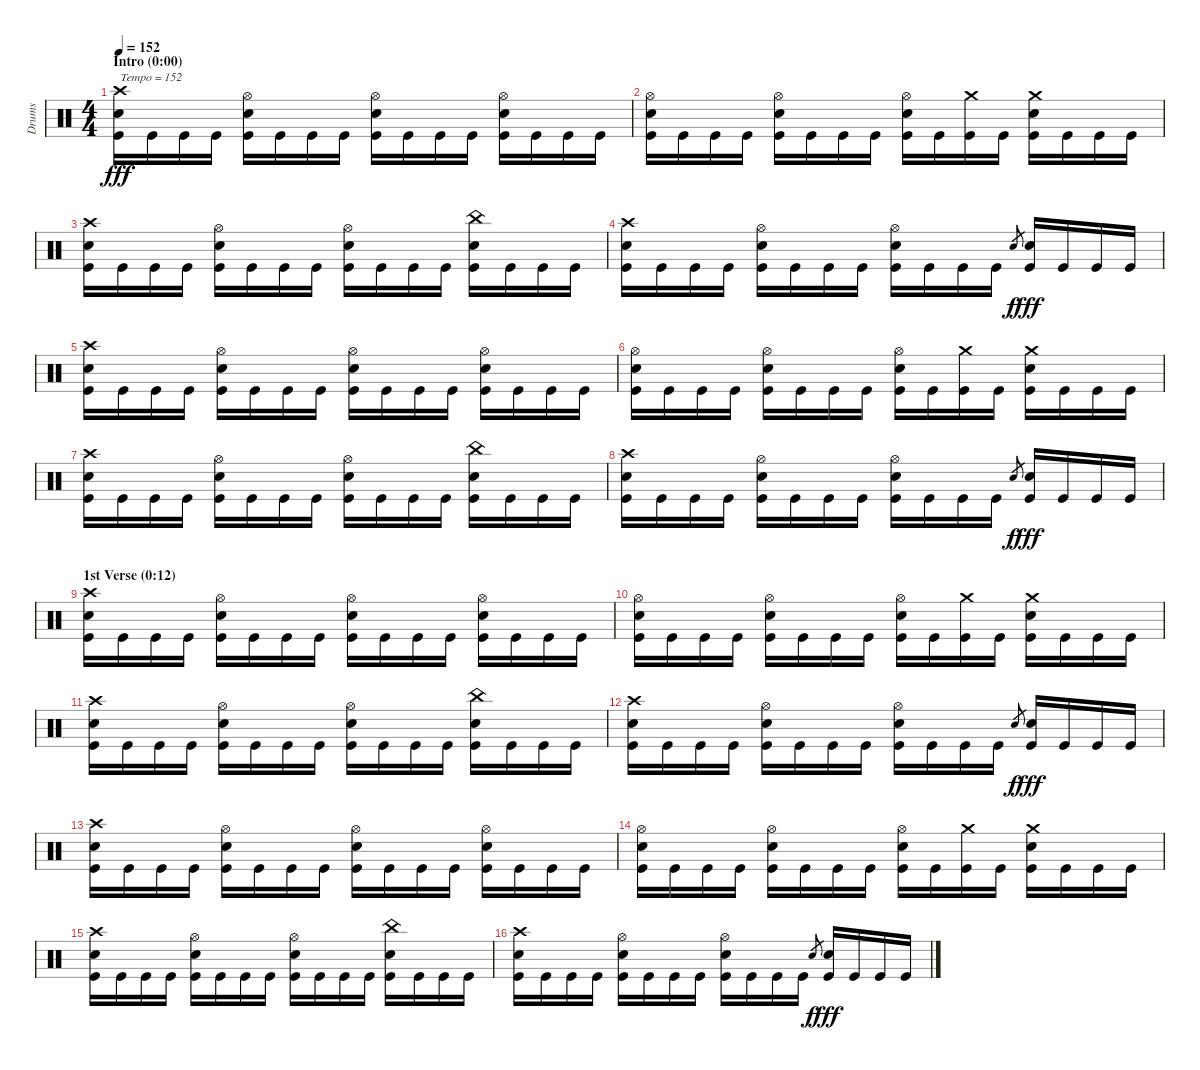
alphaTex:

\track ("Drums" "Drums") {instrument percussion}
\staff {score}
\articulation defaults
\ts (4 4)
\section ("" "Intro (0:00)")
\tempo 152
\clef neutral
\ks c
("Crash high (hit)" "Snare (hit) 2" "Kick (hit)").16{txt "Tempo = 152" dy fff} "Kick (hit)".16 "Kick (hit)".16 "Kick (hit)".16 ("Hi-Hat (open)" "Snare (hit) 2" "Kick (hit)").16 "Kick (hit)".16 "Kick (hit)".16 "Kick (hit)".16 ("Hi-Hat (open)" "Snare (hit) 2" "Kick (hit)").16 "Kick (hit)".16 "Kick (hit)".16 "Kick (hit)".16 ("Hi-Hat (open)" "Snare (hit) 2" "Kick (hit)").16 "Kick (hit)".16 "Kick (hit)".16 "Kick (hit)".16 |
("Hi-Hat (open)" "Snare (hit) 2" "Kick (hit)").16 "Kick (hit)".16 "Kick (hit)".16 "Kick (hit)".16 ("Hi-Hat (open)" "Snare (hit) 2" "Kick (hit)").16 "Kick (hit)".16 "Kick (hit)".16 "Kick (hit)".16 ("Hi-Hat (open)" "Snare (hit) 2" "Kick (hit)").16 "Kick (hit)".16 ("Crash medium (hit)" "Kick (hit)").16 "Kick (hit)".16 ("Crash medium (hit)" "Snare (hit) 2" "Kick (hit)").16 "Kick (hit)".16 "Kick (hit)".16 "Kick (hit)".16 |
("Crash high (hit)" "Snare (hit) 2" "Kick (hit)").16 "Kick (hit)".16 "Kick (hit)".16 "Kick (hit)".16 ("Hi-Hat (open)" "Snare (hit) 2" "Kick (hit)").16 "Kick (hit)".16 "Kick (hit)".16 "Kick (hit)".16 ("Hi-Hat (open)" "Snare (hit) 2" "Kick (hit)").16 "Kick (hit)".16 "Kick (hit)".16 "Kick (hit)".16 ("China (hit)" "Snare (hit) 2" "Kick (hit)").16 "Kick (hit)".16 "Kick (hit)".16 "Kick (hit)".16 |
("Crash high (hit)" "Snare (hit) 2" "Kick (hit)").16 "Kick (hit)".16 "Kick (hit)".16 "Kick (hit)".16 ("Hi-Hat (open)" "Snare (hit) 2" "Kick (hit)").16 "Kick (hit)".16 "Kick (hit)".16 "Kick (hit)".16 ("Hi-Hat (open)" "Snare (hit) 2" "Kick (hit)").16 "Kick (hit)".16 "Kick (hit)".16 "Kick (hit)".16 "Snare (hit) 2".8{gr dy f} ("Snare (hit) 2" "Kick (hit)").16{dy fff} "Kick (hit)".16 "Kick (hit)".16 "Kick (hit)".16 |
("Crash high (hit)" "Snare (hit) 2" "Kick (hit)").16 "Kick (hit)".16 "Kick (hit)".16 "Kick (hit)".16 ("Hi-Hat (open)" "Snare (hit) 2" "Kick (hit)").16 "Kick (hit)".16 "Kick (hit)".16 "Kick (hit)".16 ("Hi-Hat (open)" "Snare (hit) 2" "Kick (hit)").16 "Kick (hit)".16 "Kick (hit)".16 "Kick (hit)".16 ("Hi-Hat (open)" "Snare (hit) 2" "Kick (hit)").16 "Kick (hit)".16 "Kick (hit)".16 "Kick (hit)".16 |
("Hi-Hat (open)" "Snare (hit) 2" "Kick (hit)").16 "Kick (hit)".16 "Kick (hit)".16 "Kick (hit)".16 ("Hi-Hat (open)" "Snare (hit) 2" "Kick (hit)").16 "Kick (hit)".16 "Kick (hit)".16 "Kick (hit)".16 ("Hi-Hat (open)" "Snare (hit) 2" "Kick (hit)").16 "Kick (hit)".16 ("Crash medium (hit)" "Kick (hit)").16 "Kick (hit)".16 ("Crash medium (hit)" "Snare (hit) 2" "Kick (hit)").16 "Kick (hit)".16 "Kick (hit)".16 "Kick (hit)".16 |
("Crash high (hit)" "Snare (hit) 2" "Kick (hit)").16 "Kick (hit)".16 "Kick (hit)".16 "Kick (hit)".16 ("Hi-Hat (open)" "Snare (hit) 2" "Kick (hit)").16 "Kick (hit)".16 "Kick (hit)".16 "Kick (hit)".16 ("Hi-Hat (open)" "Snare (hit) 2" "Kick (hit)").16 "Kick (hit)".16 "Kick (hit)".16 "Kick (hit)".16 ("China (hit)" "Snare (hit) 2" "Kick (hit)").16 "Kick (hit)".16 "Kick (hit)".16 "Kick (hit)".16 |
("Crash high (hit)" "Snare (hit) 2" "Kick (hit)").16 "Kick (hit)".16 "Kick (hit)".16 "Kick (hit)".16 ("Hi-Hat (open)" "Snare (hit) 2" "Kick (hit)").16 "Kick (hit)".16 "Kick (hit)".16 "Kick (hit)".16 ("Hi-Hat (open)" "Snare (hit) 2" "Kick (hit)").16 "Kick (hit)".16 "Kick (hit)".16 "Kick (hit)".16 "Snare (hit) 2".8{gr dy f} ("Snare (hit) 2" "Kick (hit)").16{dy fff} "Kick (hit)".16 "Kick (hit)".16 "Kick (hit)".16 |
\section ("" "1st Verse (0:12)")
("Crash high (hit)" "Snare (hit) 2" "Kick (hit)").16 "Kick (hit)".16 "Kick (hit)".16 "Kick (hit)".16 ("Hi-Hat (open)" "Snare (hit) 2" "Kick (hit)").16 "Kick (hit)".16 "Kick (hit)".16 "Kick (hit)".16 ("Hi-Hat (open)" "Snare (hit) 2" "Kick (hit)").16 "Kick (hit)".16 "Kick (hit)".16 "Kick (hit)".16 ("Hi-Hat (open)" "Snare (hit) 2" "Kick (hit)").16 "Kick (hit)".16 "Kick (hit)".16 "Kick (hit)".16 |
("Hi-Hat (open)" "Snare (hit) 2" "Kick (hit)").16 "Kick (hit)".16 "Kick (hit)".16 "Kick (hit)".16 ("Hi-Hat (open)" "Snare (hit) 2" "Kick (hit)").16 "Kick (hit)".16 "Kick (hit)".16 "Kick (hit)".16 ("Hi-Hat (open)" "Snare (hit) 2" "Kick (hit)").16 "Kick (hit)".16 ("Crash medium (hit)" "Kick (hit)").16 "Kick (hit)".16 ("Crash medium (hit)" "Snare (hit) 2" "Kick (hit)").16 "Kick (hit)".16 "Kick (hit)".16 "Kick (hit)".16 |
("Crash high (hit)" "Snare (hit) 2" "Kick (hit)").16 "Kick (hit)".16 "Kick (hit)".16 "Kick (hit)".16 ("Hi-Hat (open)" "Snare (hit) 2" "Kick (hit)").16 "Kick (hit)".16 "Kick (hit)".16 "Kick (hit)".16 ("Hi-Hat (open)" "Snare (hit) 2" "Kick (hit)").16 "Kick (hit)".16 "Kick (hit)".16 "Kick (hit)".16 ("China (hit)" "Snare (hit) 2" "Kick (hit)").16 "Kick (hit)".16 "Kick (hit)".16 "Kick (hit)".16 |
("Crash high (hit)" "Snare (hit) 2" "Kick (hit)").16 "Kick (hit)".16 "Kick (hit)".16 "Kick (hit)".16 ("Hi-Hat (open)" "Snare (hit) 2" "Kick (hit)").16 "Kick (hit)".16 "Kick (hit)".16 "Kick (hit)".16 ("Hi-Hat (open)" "Snare (hit) 2" "Kick (hit)").16 "Kick (hit)".16 "Kick (hit)".16 "Kick (hit)".16 "Snare (hit) 2".8{gr dy f} ("Snare (hit) 2" "Kick (hit)").16{dy fff} "Kick (hit)".16 "Kick (hit)".16 "Kick (hit)".16 |
("Crash high (hit)" "Snare (hit) 2" "Kick (hit)").16 "Kick (hit)".16 "Kick (hit)".16 "Kick (hit)".16 ("Hi-Hat (open)" "Snare (hit) 2" "Kick (hit)").16 "Kick (hit)".16 "Kick (hit)".16 "Kick (hit)".16 ("Hi-Hat (open)" "Snare (hit) 2" "Kick (hit)").16 "Kick (hit)".16 "Kick (hit)".16 "Kick (hit)".16 ("Hi-Hat (open)" "Snare (hit) 2" "Kick (hit)").16 "Kick (hit)".16 "Kick (hit)".16 "Kick (hit)".16 |
("Hi-Hat (open)" "Snare (hit) 2" "Kick (hit)").16 "Kick (hit)".16 "Kick (hit)".16 "Kick (hit)".16 ("Hi-Hat (open)" "Snare (hit) 2" "Kick (hit)").16 "Kick (hit)".16 "Kick (hit)".16 "Kick (hit)".16 ("Hi-Hat (open)" "Snare (hit) 2" "Kick (hit)").16 "Kick (hit)".16 ("Crash medium (hit)" "Kick (hit)").16 "Kick (hit)".16 ("Crash medium (hit)" "Snare (hit) 2" "Kick (hit)").16 "Kick (hit)".16 "Kick (hit)".16 "Kick (hit)".16 |
("Crash high (hit)" "Snare (hit) 2" "Kick (hit)").16 "Kick (hit)".16 "Kick (hit)".16 "Kick (hit)".16 ("Hi-Hat (open)" "Snare (hit) 2" "Kick (hit)").16 "Kick (hit)".16 "Kick (hit)".16 "Kick (hit)".16 ("Hi-Hat (open)" "Snare (hit) 2" "Kick (hit)").16 "Kick (hit)".16 "Kick (hit)".16 "Kick (hit)".16 ("China (hit)" "Snare (hit) 2" "Kick (hit)").16 "Kick (hit)".16 "Kick (hit)".16 "Kick (hit)".16 |
("Crash high (hit)" "Snare (hit) 2" "Kick (hit)").16 "Kick (hit)".16 "Kick (hit)".16 "Kick (hit)".16 ("Hi-Hat (open)" "Snare (hit) 2" "Kick (hit)").16 "Kick (hit)".16 "Kick (hit)".16 "Kick (hit)".16 ("Hi-Hat (open)" "Snare (hit) 2" "Kick (hit)").16 "Kick (hit)".16 "Kick (hit)".16 "Kick (hit)".16 "Snare (hit) 2".8{gr dy f} ("Snare (hit) 2" "Kick (hit)").16{dy fff} "Kick (hit)".16 "Kick (hit)".16 "Kick (hit)".16
